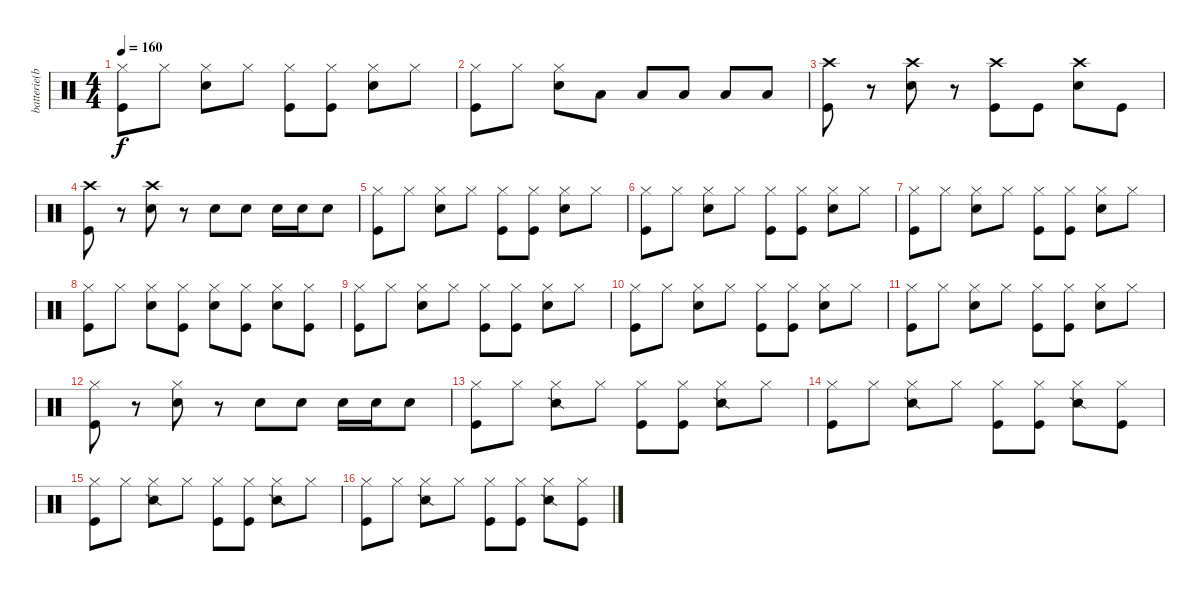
\track ("batterie(brett)" "batterie(b") {instrument percussion}
\staff {score}
\articulation defaults
\ts (4 4)
\tempo 160
\clef neutral
\ks c
("Hi-Hat (closed)" "Kick (hit)").8{dy f} "Hi-Hat (closed)".8 ("Hi-Hat (closed)" "Snare (hit) 2").8 "Hi-Hat (closed)".8 ("Hi-Hat (closed)" "Kick (hit)").8 ("Hi-Hat (closed)" "Kick (hit)").8 ("Hi-Hat (closed)" "Snare (hit) 2").8 "Hi-Hat (closed)".8 |
("Hi-Hat (closed)" "Kick (hit)").8 "Hi-Hat (closed)".8 ("Hi-Hat (closed)" "Snare (hit) 2").8 "Low Tom (hit)".8 "Low Tom (hit)".8 "Low Tom (hit)".8 "Low Tom (hit)".8 "Low Tom (hit)".8 |
("Crash high (hit)" "Kick (hit)").8 r.8 ("Crash high (hit)" "Snare (hit) 2").8 r.8 ("Crash high (hit)" "Kick (hit)").8 "Kick (hit)".8 ("Crash high (hit)" "Snare (hit) 2").8 "Kick (hit)".8 |
("Crash high (hit)" "Kick (hit)").8 r.8 ("Crash high (hit)" "Snare (hit) 2").8 r.8 "Snare (hit) 2".8 "Snare (hit) 2".8 "Snare (hit) 2".16 "Snare (hit) 2".16 "Snare (hit) 2".8 |
("Hi-Hat (closed)" "Kick (hit)").8 "Hi-Hat (closed)".8 ("Hi-Hat (closed)" "Snare (hit) 2").8 "Hi-Hat (closed)".8 ("Hi-Hat (closed)" "Kick (hit)").8 ("Hi-Hat (closed)" "Kick (hit)").8 ("Hi-Hat (closed)" "Snare (hit) 2").8 "Hi-Hat (closed)".8 |
("Hi-Hat (closed)" "Kick (hit)").8 "Hi-Hat (closed)".8 ("Hi-Hat (closed)" "Snare (hit) 2").8 "Hi-Hat (closed)".8 ("Hi-Hat (closed)" "Kick (hit)").8 ("Hi-Hat (closed)" "Kick (hit)").8 ("Hi-Hat (closed)" "Snare (hit) 2").8 "Hi-Hat (closed)".8 |
("Hi-Hat (closed)" "Kick (hit)").8 "Hi-Hat (closed)".8 ("Hi-Hat (closed)" "Snare (hit) 2").8 "Hi-Hat (closed)".8 ("Hi-Hat (closed)" "Kick (hit)").8 ("Hi-Hat (closed)" "Kick (hit)").8 ("Hi-Hat (closed)" "Snare (hit) 2").8 "Hi-Hat (closed)".8 |
("Hi-Hat (closed)" "Kick (hit)").8 "Hi-Hat (closed)".8 ("Hi-Hat (closed)" "Snare (hit) 2").8 ("Hi-Hat (closed)" "Kick (hit)").8 ("Hi-Hat (closed)" "Snare (hit) 2").8 ("Hi-Hat (closed)" "Kick (hit)").8 ("Hi-Hat (closed)" "Snare (hit) 2").8 ("Hi-Hat (closed)" "Kick (hit)").8 |
("Hi-Hat (closed)" "Kick (hit)").8 "Hi-Hat (closed)".8 ("Hi-Hat (closed)" "Snare (hit) 2").8 "Hi-Hat (closed)".8 ("Hi-Hat (closed)" "Kick (hit)").8 ("Hi-Hat (closed)" "Kick (hit)").8 ("Hi-Hat (closed)" "Snare (hit) 2").8 "Hi-Hat (closed)".8 |
("Hi-Hat (closed)" "Kick (hit)").8 "Hi-Hat (closed)".8 ("Hi-Hat (closed)" "Snare (hit) 2").8 "Hi-Hat (closed)".8 ("Hi-Hat (closed)" "Kick (hit)").8 ("Hi-Hat (closed)" "Kick (hit)").8 ("Hi-Hat (closed)" "Snare (hit) 2").8 "Hi-Hat (closed)".8 |
("Hi-Hat (closed)" "Kick (hit)").8 "Hi-Hat (closed)".8 ("Hi-Hat (closed)" "Snare (hit) 2").8 "Hi-Hat (closed)".8 ("Hi-Hat (closed)" "Kick (hit)").8 ("Hi-Hat (closed)" "Kick (hit)").8 ("Hi-Hat (closed)" "Snare (hit) 2").8 "Hi-Hat (closed)".8 |
("Hi-Hat (closed)" "Kick (hit)").8 r.8 ("Hi-Hat (closed)" "Snare (hit) 2").8 r.8 "Snare (hit) 2".8 "Snare (hit) 2".8 "Snare (hit) 2".16 "Snare (hit) 2".16 "Snare (hit) 2".8 |
("Hi-Hat (closed)" "Kick (hit)").8 "Hi-Hat (closed)".8 ("Hi-Hat (closed)" "Snare (side stick) 2").8 "Hi-Hat (closed)".8 ("Hi-Hat (closed)" "Kick (hit)").8 ("Hi-Hat (closed)" "Kick (hit)").8 ("Hi-Hat (closed)" "Snare (side stick) 2").8 "Hi-Hat (closed)".8 |
("Hi-Hat (closed)" "Kick (hit)").8 "Hi-Hat (closed)".8 ("Hi-Hat (closed)" "Snare (side stick) 2").8 "Hi-Hat (closed)".8 ("Hi-Hat (closed)" "Kick (hit)").8 ("Hi-Hat (closed)" "Kick (hit)").8 ("Hi-Hat (closed)" "Snare (side stick) 2").8 ("Hi-Hat (closed)" "Kick (hit)").8 |
("Hi-Hat (closed)" "Kick (hit)").8 "Hi-Hat (closed)".8 ("Hi-Hat (closed)" "Snare (side stick) 2").8 "Hi-Hat (closed)".8 ("Hi-Hat (closed)" "Kick (hit)").8 ("Hi-Hat (closed)" "Kick (hit)").8 ("Hi-Hat (closed)" "Snare (side stick) 2").8 "Hi-Hat (closed)".8 |
("Hi-Hat (closed)" "Kick (hit)").8 "Hi-Hat (closed)".8 ("Hi-Hat (closed)" "Snare (side stick) 2").8 "Hi-Hat (closed)".8 ("Hi-Hat (closed)" "Kick (hit)").8 ("Hi-Hat (closed)" "Kick (hit)").8 ("Hi-Hat (closed)" "Snare (side stick) 2").8 ("Hi-Hat (closed)" "Kick (hit)").8
